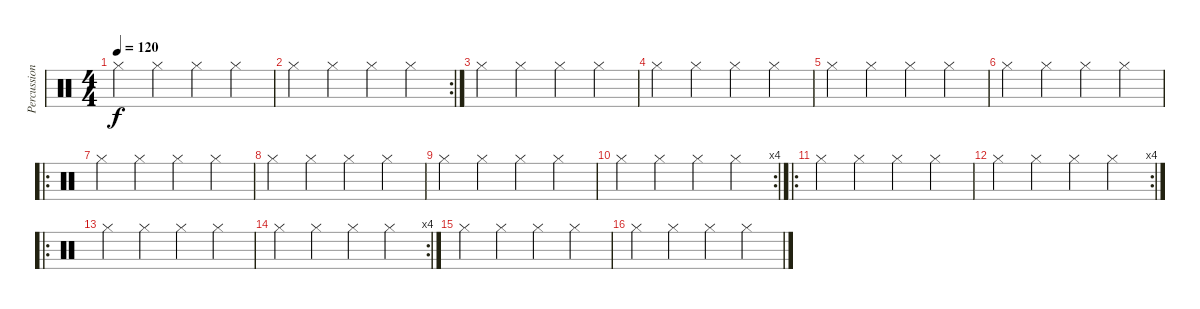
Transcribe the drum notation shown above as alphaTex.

\track ("Percussioni" "Percussion") {instrument percussion}
\staff {score}
\articulation defaults
\ts (4 4)
\tempo 120
\clef neutral
\ks c "Hi-Hat (closed)".4{dy f} "Hi-Hat (closed)".4 "Hi-Hat (closed)".4 "Hi-Hat (closed)".4
|
\rc 2 "Hi-Hat (closed)".4 "Hi-Hat (closed)".4 "Hi-Hat (closed)".4 "Hi-Hat (closed)".4
|
"Hi-Hat (closed)".4 "Hi-Hat (closed)".4 "Hi-Hat (closed)".4 "Hi-Hat (closed)".4 |
"Hi-Hat (closed)".4 "Hi-Hat (closed)".4 "Hi-Hat (closed)".4 "Hi-Hat (closed)".4 |
"Hi-Hat (closed)".4 "Hi-Hat (closed)".4 "Hi-Hat (closed)".4 "Hi-Hat (closed)".4 |
"Hi-Hat (closed)".4 "Hi-Hat (closed)".4 "Hi-Hat (closed)".4 "Hi-Hat (closed)".4 |
\ro "Hi-Hat (closed)".4 "Hi-Hat (closed)".4 "Hi-Hat (closed)".4 "Hi-Hat (closed)".4
|
"Hi-Hat (closed)".4 "Hi-Hat (closed)".4 "Hi-Hat (closed)".4 "Hi-Hat (closed)".4 |
"Hi-Hat (closed)".4 "Hi-Hat (closed)".4 "Hi-Hat (closed)".4 "Hi-Hat (closed)".4 |
\rc 4 "Hi-Hat (closed)".4 "Hi-Hat (closed)".4 "Hi-Hat (closed)".4 "Hi-Hat (closed)".4
|
\ro "Hi-Hat (closed)".4 "Hi-Hat (closed)".4 "Hi-Hat (closed)".4 "Hi-Hat (closed)".4
|
\rc 4 "Hi-Hat (closed)".4 "Hi-Hat (closed)".4 "Hi-Hat (closed)".4 "Hi-Hat (closed)".4
|
\ro "Hi-Hat (closed)".4 "Hi-Hat (closed)".4 "Hi-Hat (closed)".4 "Hi-Hat (closed)".4
|
\rc 4 "Hi-Hat (closed)".4 "Hi-Hat (closed)".4 "Hi-Hat (closed)".4 "Hi-Hat (closed)".4
|
"Hi-Hat (closed)".4 "Hi-Hat (closed)".4 "Hi-Hat (closed)".4 "Hi-Hat (closed)".4 |
"Hi-Hat (closed)".4 "Hi-Hat (closed)".4 "Hi-Hat (closed)".4 "Hi-Hat (closed)".4
